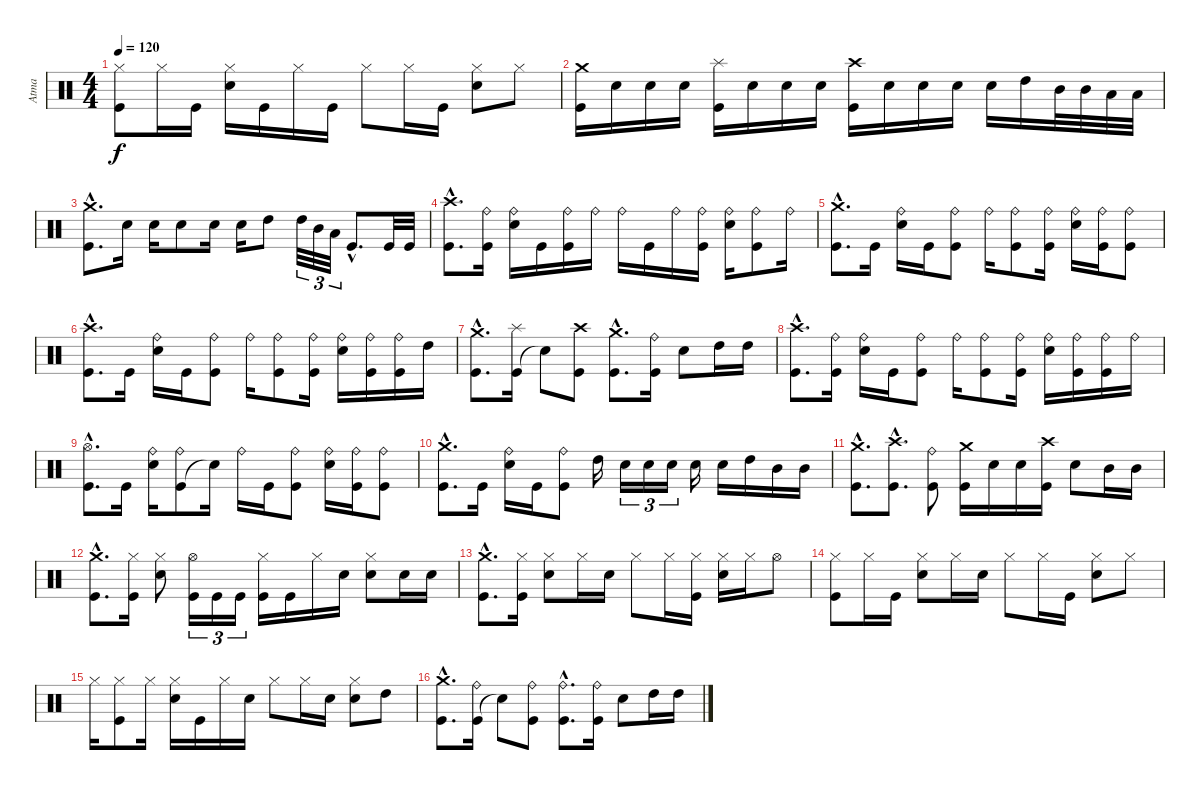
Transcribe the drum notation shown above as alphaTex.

\track ("Atma" "Atma") {instrument percussion}
\staff {score}
\articulation defaults
\ts (4 4)
\tempo 120
\clef neutral
\ks c
("Kick (hit)" "Hi-Hat (closed)").8{dy f} "Hi-Hat (closed)".16 "Kick (hit)".16 ("Snare (hit) 2" "Hi-Hat (closed)").16 "Kick (hit)".16 "Hi-Hat (closed)".16 "Kick (hit)".16 "Hi-Hat (closed)".8 "Hi-Hat (closed)".16 "Kick (hit)".16 ("Snare (hit) 2" "Hi-Hat (closed)").8 "Hi-Hat (closed)".8 |
("Kick (hit)" "Crash medium (hit)").16 "Snare (hit) 2".16 "Snare (hit) 2".16 "Snare (hit) 2".16 ("Kick (hit)" "Splash (hit)").16 "Snare (hit) 2".16 "Snare (hit) 2".16 "Snare (hit) 2".16 ("Kick (hit)" "Crash high (hit)").16 "Snare (hit) 2".16 "Snare (hit) 2".16 "Snare (hit) 2".16 "Snare (hit) 2".16 "High Tom (hit)".16 "Mid Tom (hit)".32 "Mid Tom (hit)".32 "Low Tom (hit)".32 "Low Tom (hit)".32 |
("Kick (hit)"{hac} "Crash medium (hit)"{hac}).8{d} "Snare (hit) 2".16 "Snare (hit) 2".16 "Snare (hit) 2".8 "Snare (hit) 2".16 "Snare (hit) 2".16 "High Tom (hit)".8 "High Tom (hit)".32{tu (3 2)} "Mid Tom (hit)".32{tu (3 2)} "Low Tom (hit)".32{tu (3 2)} "Kick (hit)"{hac}.8{d} "Kick (hit)".32 "Kick (hit)".32 |
("Kick (hit)"{hac} "Crash high (hit)"{hac}).8{d} ("Kick (hit)" "Ride (bell)").16 ("Snare (hit) 2" "Ride (bell)").16 "Kick (hit)".16 ("Kick (hit)" "Ride (bell)").16 "Ride (bell)".16 "Ride (bell)".16 "Kick (hit)".16 "Ride (bell)".16 ("Kick (hit)" "Ride (bell)").16 ("Snare (hit) 2" "Ride (bell)").16 ("Kick (hit)" "Ride (bell)").8 "Ride (bell)".16 |
("Kick (hit)"{hac} "Crash medium (hit)"{hac}).8{d} "Kick (hit)".16 ("Snare (hit) 2" "Ride (bell)").16 "Kick (hit)".16 ("Kick (hit)" "Ride (bell)").8 "Ride (bell)".16 ("Kick (hit)" "Ride (bell)").8 ("Kick (hit)" "Ride (bell)").16 ("Snare (hit) 2" "Ride (bell)").16 ("Kick (hit)" "Ride (bell)").16 ("Kick (hit)" "Ride (bell)").8 |
("Kick (hit)"{hac} "Crash high (hit)"{hac}).8{d} "Kick (hit)".16 ("Snare (hit) 2" "Ride (bell)").16 "Kick (hit)".16 ("Kick (hit)" "Ride (bell)").8 "Ride (bell)".16 ("Kick (hit)" "Ride (bell)").8 ("Kick (hit)" "Ride (bell)").16 ("Snare (hit) 2" "Ride (bell)").16 ("Kick (hit)" "Ride (bell)").16 ("Kick (hit)" "Ride (bell)").16 "High Tom (hit)".16 |
("Kick (hit)"{hac} "Crash medium (hit)"{hac}).8{d} ("Kick (hit)" "Splash (hit)").16 "Snare (hit)"{t}.8 ("Kick (hit)" "Crash high (hit)").8 ("Kick (hit)"{hac} "Crash medium (hit)"{hac}).8{d} ("Kick (hit)" "Ride (bell)").16 "Snare (hit) 2".8 "High Tom (hit)".16 "High Tom (hit)".16 |
("Kick (hit)"{hac} "Crash high (hit)"{hac}).8{d} ("Kick (hit)" "Ride (bell)").16 ("Snare (hit) 2" "Ride (bell)").16 "Kick (hit)".16 ("Kick (hit)" "Ride (bell)").8 "Ride (bell)".16 ("Kick (hit)" "Ride (bell)").8 ("Kick (hit)" "Ride (bell)").16 ("Snare (hit) 2" "Ride (bell)").16 ("Kick (hit)" "Ride (bell)").16 ("Kick (hit)" "Ride (bell)").16 "Ride (bell)".16 |
("Kick (hit)"{hac} "Hi-Hat (open)"{hac}).8{d} "Kick (hit)".16 ("Snare (hit) 2" "Ride (bell)").16 ("Kick (hit)" "Ride (bell)").8 "Snare (hit)"{t}.16 "Ride (bell)".16 "Kick (hit)".16 ("Kick (hit)" "Ride (bell)").8 ("Snare (hit) 2" "Ride (bell)").16 ("Kick (hit)" "Ride (bell)").16 ("Kick (hit)" "Ride (bell)").8 |
("Kick (hit)"{hac} "Crash medium (hit)"{hac}).8{d} "Kick (hit)".16 ("Snare (hit) 2" "Ride (bell)").16 "Kick (hit)".16 ("Kick (hit)" "Ride (bell)").8 "High Tom (hit)".16 "Snare (hit) 2".16{tu (3 2)} "Snare (hit) 2".16{tu (3 2)} "Snare (hit) 2".16{tu (3 2)} "Snare (hit) 2".16 "Snare (hit) 2".16 "High Tom (hit)".16 "Mid Tom (hit)".16 "Mid Tom (hit)".16 |
("Kick (hit)"{hac} "Crash medium (hit)"{hac}).8{d} ("Kick (hit)"{hac} "Crash high (hit)"{hac}).8{d} ("Kick (hit)" "Ride (bell)").8 ("Kick (hit)" "Crash medium (hit)").16 "Snare (hit) 2".16 "Snare (hit) 2".16 ("Kick (hit)" "Crash high (hit)").16 "Snare (hit) 2".8 "Mid Tom (hit)".16 "Mid Tom (hit)".16 |
("Kick (hit)"{hac} "Crash medium (hit)"{hac}).8{d} ("Kick (hit)" "Hi-Hat (closed)").16 ("Snare (hit) 2" "Hi-Hat (closed)").8 ("Kick (hit)" "Hi-Hat (open)").16{tu (3 2)} "Kick (hit)".16{tu (3 2)} "Kick (hit)".16{tu (3 2)} ("Kick (hit)" "Hi-Hat (closed)").16 "Kick (hit)".16 "Hi-Hat (closed)".16 "Snare (hit) 2".16 ("Snare (hit) 2" "Hi-Hat (closed)").8 "Snare (hit) 2".16 "Snare (hit) 2".16 |
("Kick (hit)"{hac} "Crash medium (hit)"{hac}).8{d} ("Kick (hit)" "Hi-Hat (closed)").16 ("Snare (hit) 2" "Hi-Hat (closed)").8 "Hi-Hat (closed)".16 "Snare (hit) 2".16 "Hi-Hat (closed)".8 "Hi-Hat (closed)".16 ("Kick (hit)" "Hi-Hat (closed)").16 ("Snare (hit) 2" "Hi-Hat (closed)").16 "Hi-Hat (closed)".16 "Hi-Hat (open)".8 |
("Kick (hit)" "Hi-Hat (closed)").8 "Hi-Hat (closed)".16 "Kick (hit)".16 ("Snare (hit) 2" "Hi-Hat (closed)").8 "Hi-Hat (closed)".16 "Snare (hit) 2".16 "Hi-Hat (closed)".8 "Hi-Hat (closed)".16 "Kick (hit)".16 ("Snare (hit) 2" "Hi-Hat (closed)").8 "Hi-Hat (closed)".8 |
"Hi-Hat (closed)".16 ("Kick (hit)" "Hi-Hat (closed)").8 "Hi-Hat (closed)".16 ("Snare (hit) 2" "Hi-Hat (closed)").16 "Kick (hit)".16 "Hi-Hat (closed)".16 "Snare (hit) 2".16 "Hi-Hat (closed)".8 "Hi-Hat (closed)".16 "Snare (hit) 2".16 ("Snare (hit) 2" "Hi-Hat (closed)").8 "High Tom (hit)".8 |
("Kick (hit)"{hac} "Crash medium (hit)"{hac}).8{d} ("Kick (hit)" "Ride (bell)").16 "Snare (hit)"{t}.8 ("Kick (hit)" "Ride (bell)").8 ("Kick (hit)"{hac} "Ride (bell)"{hac}).8{d} ("Kick (hit)" "Ride (bell)").16 "Snare (hit) 2".8 "High Tom (hit)".16 "High Tom (hit)".16
